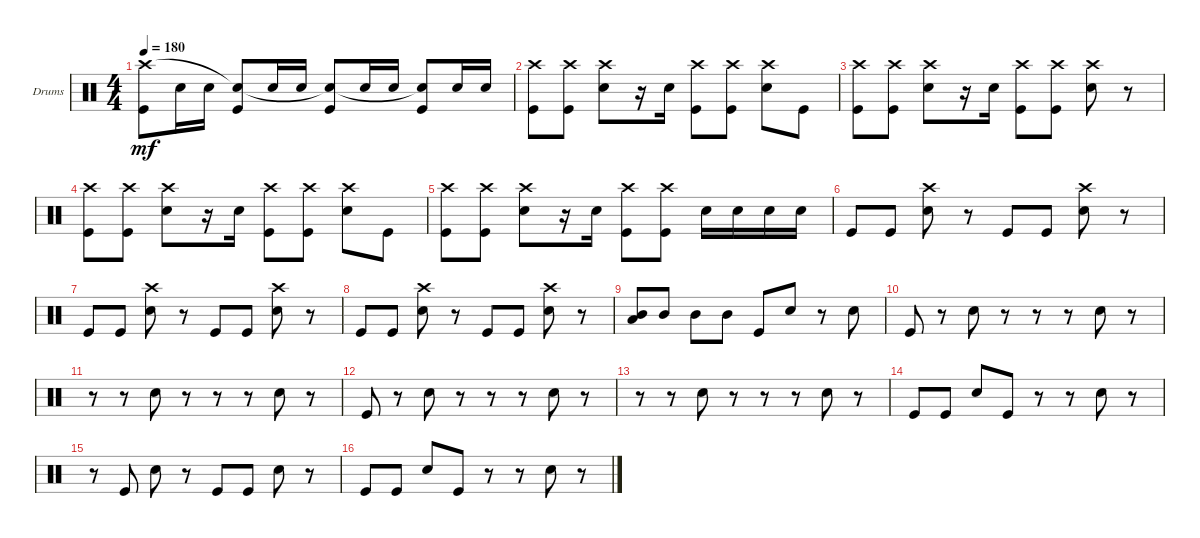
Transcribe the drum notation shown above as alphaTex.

\bracketExtendMode groupsimilarinstruments
\firstSystemTrackNameOrientation horizontal
\otherSystemsTrackNameOrientation horizontal
\track ("Drumkit" "Drums") {instrument percussion}
\staff {score}
\articulation defaults
\ts (4 4)
\tempo 180
\clef neutral
\ks c
("Kick (hit)" "Crash high (hit)").8{dy mf} "Snare (hit) 2".16 "Snare (hit) 2".16 ("Kick (hit)" "Snare (hit) 2"{t}).8 "Snare (hit) 2".16 "Snare (hit) 2".16 ("Kick (hit)" "Snare (hit) 2"{t}).8 "Snare (hit) 2".16 "Snare (hit) 2".16 ("Kick (hit)" "Snare (hit) 2"{t}).8 "Snare (hit) 2".16 "Snare (hit) 2".16 |
("Kick (hit)" "Crash high (hit)").8 ("Kick (hit)" "Crash high (hit)").8 ("Snare (hit) 2" "Crash high (hit)").8 r.16 "Snare (hit) 2".16 ("Kick (hit)" "Crash high (hit)").8 ("Kick (hit)" "Crash high (hit)").8 ("Snare (hit) 2" "Crash high (hit)").8 "Kick (hit)".8 |
("Kick (hit)" "Crash high (hit)").8 ("Kick (hit)" "Crash high (hit)").8 ("Snare (hit) 2" "Crash high (hit)").8 r.16 "Snare (hit) 2".16 ("Kick (hit)" "Crash high (hit)").8 ("Kick (hit)" "Crash high (hit)").8 ("Snare (hit) 2" "Crash high (hit)").8 r.8 |
("Kick (hit)" "Crash high (hit)").8 ("Kick (hit)" "Crash high (hit)").8 ("Snare (hit) 2" "Crash high (hit)").8 r.16 "Snare (hit) 2".16 ("Kick (hit)" "Crash high (hit)").8 ("Kick (hit)" "Crash high (hit)").8 ("Snare (hit) 2" "Crash high (hit)").8 "Kick (hit)".8 |
("Kick (hit)" "Crash high (hit)").8 ("Kick (hit)" "Crash high (hit)").8 ("Snare (hit) 2" "Crash high (hit)").8 r.16 "Snare (hit) 2".16 ("Kick (hit)" "Crash high (hit)").8 ("Kick (hit)" "Crash high (hit)").8 "Snare (hit) 2".16 "Snare (hit) 2".16 "Snare (hit) 2".16 "Snare (hit) 2".16 |
"Kick (hit)".8 "Kick (hit)".8 ("Snare (hit) 2" "Crash high (hit)").8 r.8 "Kick (hit)".8 "Kick (hit)".8 ("Snare (hit) 2" "Crash high (hit)").8 r.8 |
"Kick (hit)".8 "Kick (hit)".8 ("Snare (hit) 2" "Crash high (hit)").8 r.8 "Kick (hit)".8 "Kick (hit)".8 ("Snare (hit) 2" "Crash high (hit)").8 r.8 |
"Kick (hit)".8 "Kick (hit)".8 ("Snare (hit) 2" "Crash high (hit)").8 r.8 "Kick (hit)".8 "Kick (hit)".8 ("Snare (hit) 2" "Crash high (hit)").8 r.8 |
("Low Tom (hit)" "Mid Tom (hit)").8 "Mid Tom (hit)".8 "Mid Tom (hit)".8 "Mid Tom (hit)".8 "Kick (hit)".8 "Snare (hit) 2".8 r.8 "Snare (hit) 2".8 |
"Kick (hit)".8 r.8 "Snare (hit) 2".8 r.8 r.8 r.8 "Snare (hit) 2".8 r.8 |
r.8 r.8 "Snare (hit) 2".8 r.8 r.8 r.8 "Snare (hit) 2".8 r.8 |
"Kick (hit)".8 r.8 "Snare (hit) 2".8 r.8 r.8 r.8 "Snare (hit) 2".8 r.8 |
r.8 r.8 "Snare (hit) 2".8 r.8 r.8 r.8 "Snare (hit) 2".8 r.8 |
"Kick (hit)".8 "Kick (hit)".8 "Snare (hit) 2".8 "Kick (hit)".8 r.8 r.8 "Snare (hit) 2".8 r.8 |
r.8 "Kick (hit)".8 "Snare (hit) 2".8 r.8 "Kick (hit)".8 "Kick (hit)".8 "Snare (hit) 2".8 r.8 |
"Kick (hit)".8 "Kick (hit)".8 "Snare (hit) 2".8 "Kick (hit)".8 r.8 r.8 "Snare (hit) 2".8 r.8
